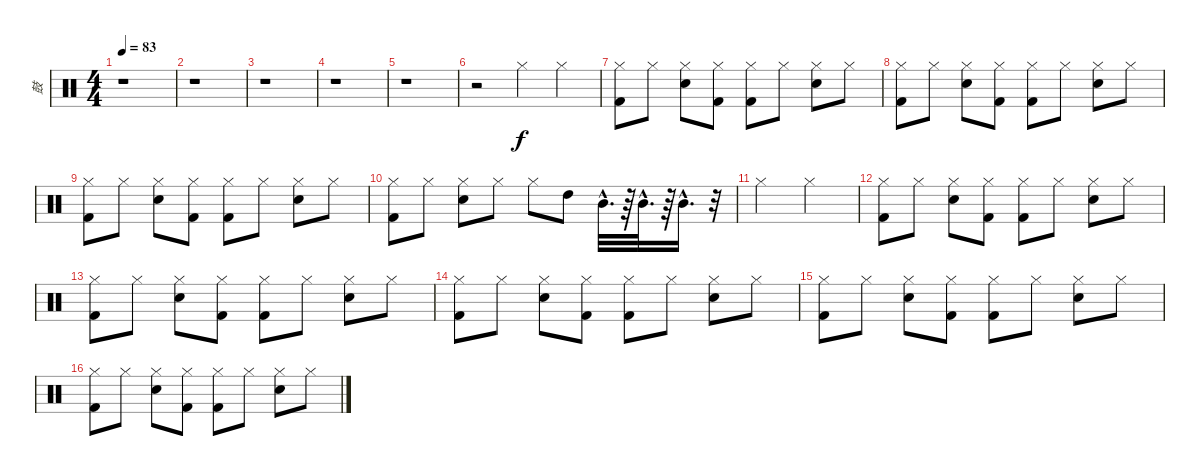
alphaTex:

\track ("鼓" "鼓") {instrument percussion}
\staff {score}
\articulation defaults
\ts (4 4)
\tempo 83
\clef neutral
\ks c
r.1{dy f} |
r.1 |
r.1 |
r.1 |
r.1 |
r.2 "Hi-Hat (closed)".4 "Hi-Hat (closed)".4 |
("Kick (hit) 2" "Hi-Hat (closed)").8 "Hi-Hat (closed)".8 ("Hi-Hat (closed)" "Snare (hit) 2").8 ("Hi-Hat (closed)" "Kick (hit) 2").8 ("Kick (hit) 2" "Hi-Hat (closed)").8 "Hi-Hat (closed)".8 ("Hi-Hat (closed)" "Snare (hit) 2").8 "Hi-Hat (closed)".8 |
("Kick (hit) 2" "Hi-Hat (closed)").8 "Hi-Hat (closed)".8 ("Hi-Hat (closed)" "Snare (hit) 2").8 ("Hi-Hat (closed)" "Kick (hit) 2").8 ("Kick (hit) 2" "Hi-Hat (closed)").8 "Hi-Hat (closed)".8 ("Hi-Hat (closed)" "Snare (hit) 2").8 "Hi-Hat (closed)".8 |
("Kick (hit) 2" "Hi-Hat (closed)").8 "Hi-Hat (closed)".8 ("Hi-Hat (closed)" "Snare (hit) 2").8 ("Hi-Hat (closed)" "Kick (hit) 2").8 ("Kick (hit) 2" "Hi-Hat (closed)").8 "Hi-Hat (closed)".8 ("Hi-Hat (closed)" "Snare (hit) 2").8 "Hi-Hat (closed)".8 |
("Hi-Hat (closed)" "Kick (hit) 2").8 "Hi-Hat (closed)".8 ("Snare (hit) 2" "Hi-Hat (closed)").8 "Hi-Hat (closed)".8 "Hi-Hat (closed)".8 "High Tom (hit)".8 "Mid Tom (hit)"{hac}.32{d} r.64 "Mid Tom (hit)"{hac}.32{d} r.64 "Mid Tom (hit)"{hac}.16{d} r.32 |
"Hi-Hat (closed)".2 "Hi-Hat (closed)".2 |
("Kick (hit) 2" "Hi-Hat (closed)").8 "Hi-Hat (closed)".8 ("Hi-Hat (closed)" "Snare (hit) 2").8 ("Hi-Hat (closed)" "Kick (hit) 2").8 ("Kick (hit) 2" "Hi-Hat (closed)").8 "Hi-Hat (closed)".8 ("Hi-Hat (closed)" "Snare (hit) 2").8 "Hi-Hat (closed)".8 |
("Kick (hit) 2" "Hi-Hat (closed)").8 "Hi-Hat (closed)".8 ("Hi-Hat (closed)" "Snare (hit) 2").8 ("Hi-Hat (closed)" "Kick (hit) 2").8 ("Kick (hit) 2" "Hi-Hat (closed)").8 "Hi-Hat (closed)".8 ("Hi-Hat (closed)" "Snare (hit) 2").8 "Hi-Hat (closed)".8 |
("Kick (hit) 2" "Hi-Hat (closed)").8 "Hi-Hat (closed)".8 ("Hi-Hat (closed)" "Snare (hit) 2").8 ("Hi-Hat (closed)" "Kick (hit) 2").8 ("Kick (hit) 2" "Hi-Hat (closed)").8 "Hi-Hat (closed)".8 ("Hi-Hat (closed)" "Snare (hit) 2").8 "Hi-Hat (closed)".8 |
("Kick (hit) 2" "Hi-Hat (closed)").8 "Hi-Hat (closed)".8 ("Hi-Hat (closed)" "Snare (hit) 2").8 ("Hi-Hat (closed)" "Kick (hit) 2").8 ("Kick (hit) 2" "Hi-Hat (closed)").8 "Hi-Hat (closed)".8 ("Hi-Hat (closed)" "Snare (hit) 2").8 "Hi-Hat (closed)".8 |
("Kick (hit) 2" "Hi-Hat (closed)").8 "Hi-Hat (closed)".8 ("Hi-Hat (closed)" "Snare (hit) 2").8 ("Hi-Hat (closed)" "Kick (hit) 2").8 ("Kick (hit) 2" "Hi-Hat (closed)").8 "Hi-Hat (closed)".8 ("Hi-Hat (closed)" "Snare (hit) 2").8 "Hi-Hat (closed)".8
